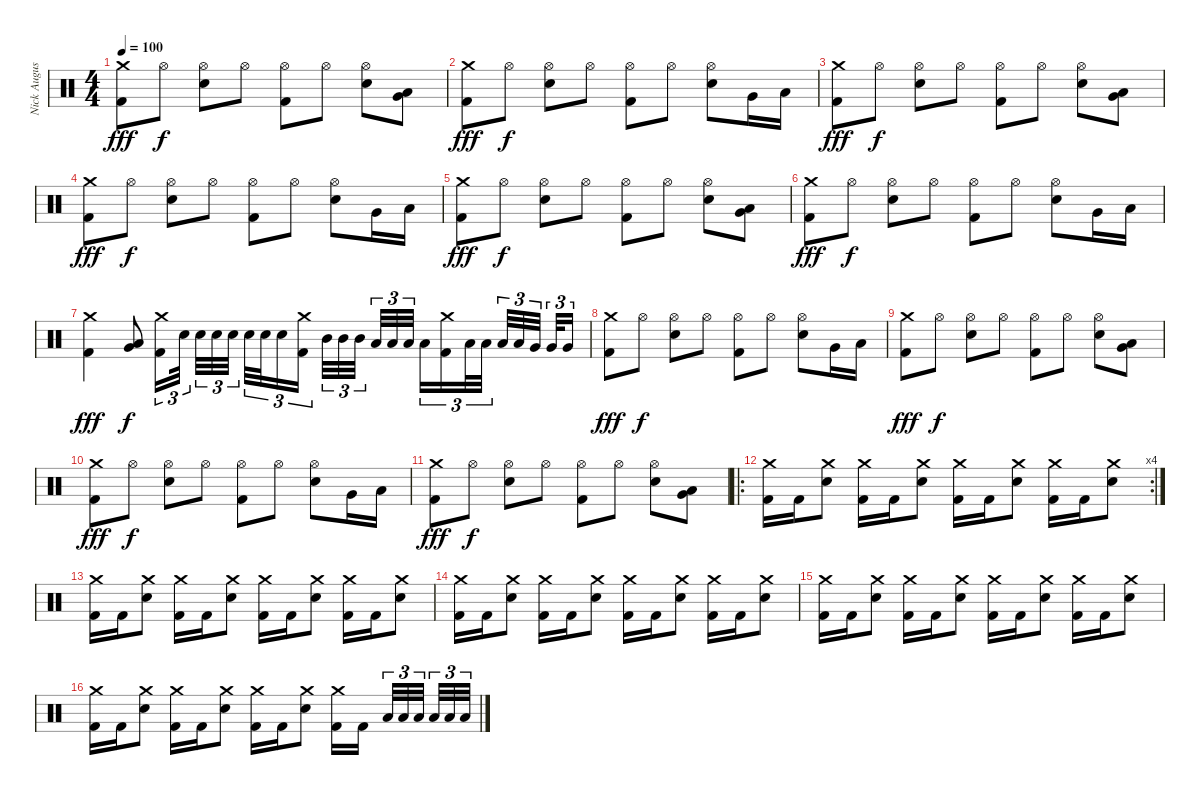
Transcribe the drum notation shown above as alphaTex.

\track ("Nick Augusto" "Nick Augus") {instrument percussion}
\staff {score}
\articulation defaults
\ts (4 4)
\tempo 100
\clef neutral
\ks c
("Crash medium (hit)" "Kick (hit) 2").8{dy fff} "Hi-Hat (open)".8{dy f} ("Electric Snare (hit)" "Hi-Hat (open)").8 "Hi-Hat (open)".8 ("Kick (hit) 2" "Hi-Hat (open)").8 "Hi-Hat (open)".8 ("Electric Snare (hit)" "Hi-Hat (open)").8 ("Low Floor Tom (hit)" "Very Low Tom (hit)").8 |
("Crash medium (hit)" "Kick (hit) 2").8{dy fff} "Hi-Hat (open)".8{dy f} ("Electric Snare (hit)" "Hi-Hat (open)").8 "Hi-Hat (open)".8 ("Kick (hit) 2" "Hi-Hat (open)").8 "Hi-Hat (open)".8 ("Electric Snare (hit)" "Hi-Hat (open)").8 "Very Low Tom (hit)".16 "Low Tom (hit)".16 |
("Crash medium (hit)" "Kick (hit) 2").8{dy fff} "Hi-Hat (open)".8{dy f} ("Electric Snare (hit)" "Hi-Hat (open)").8 "Hi-Hat (open)".8 ("Kick (hit) 2" "Hi-Hat (open)").8 "Hi-Hat (open)".8 ("Electric Snare (hit)" "Hi-Hat (open)").8 ("Low Floor Tom (hit)" "Very Low Tom (hit)").8 |
("Crash medium (hit)" "Kick (hit) 2").8{dy fff} "Hi-Hat (open)".8{dy f} ("Electric Snare (hit)" "Hi-Hat (open)").8 "Hi-Hat (open)".8 ("Kick (hit) 2" "Hi-Hat (open)").8 "Hi-Hat (open)".8 ("Electric Snare (hit)" "Hi-Hat (open)").8 "Very Low Tom (hit)".16 "Low Tom (hit)".16 |
("Crash medium (hit)" "Kick (hit) 2").8{dy fff} "Hi-Hat (open)".8{dy f} ("Electric Snare (hit)" "Hi-Hat (open)").8 "Hi-Hat (open)".8 ("Kick (hit) 2" "Hi-Hat (open)").8 "Hi-Hat (open)".8 ("Electric Snare (hit)" "Hi-Hat (open)").8 ("Low Floor Tom (hit)" "Very Low Tom (hit)").8 |
("Crash medium (hit)" "Kick (hit) 2").8{dy fff} "Hi-Hat (open)".8{dy f} ("Electric Snare (hit)" "Hi-Hat (open)").8 "Hi-Hat (open)".8 ("Kick (hit) 2" "Hi-Hat (open)").8 "Hi-Hat (open)".8 ("Electric Snare (hit)" "Hi-Hat (open)").8 "Very Low Tom (hit)".16 "Low Tom (hit)".16 |
("Crash medium (hit)" "Kick (hit) 2").4{dy fff} ("Very Low Tom (hit)" "Low Floor Tom (hit)").8{dy f} ("Kick (hit) 2" "Crash medium (hit)").16{tu (3 2)} "Electric Snare (hit)".32{tu (3 2) beam splitsecondary} "Electric Snare (hit)".32{tu (3 2)} "Electric Snare (hit)".32{tu (3 2)} "Electric Snare (hit)".32{tu (3 2)} "Electric Snare (hit)".32{tu (3 2)} "Electric Snare (hit)".32{tu (3 2)} "Electric Snare (hit)".16{tu (3 2)} ("Crash medium (hit)" "Kick (hit) 2").16{tu (3 2) beam splitsecondary} "Mid Tom (hit)".32{tu (3 2)} "Mid Tom (hit)".32{tu (3 2)} "Mid Tom (hit)".32{tu (3 2) beam splitsecondary} "Low Tom (hit)".32{tu (3 2)} "Low Tom (hit)".32{tu (3 2)} "Low Tom (hit)".32{tu (3 2)} "Low Tom (hit)".16{tu (3 2)} ("Crash medium (hit)" "Kick (hit) 2").16{tu (3 2)} "Low Tom (hit)".32{tu (3 2)} "Low Tom (hit)".32{tu (3 2) beam splitsecondary} "Low Tom (hit)".32{tu (3 2)} "Low Tom (hit)".32{tu (3 2)} "Very Low Tom (hit)".32{tu (3 2) beam splitsecondary} "Very Low Tom (hit)".32{tu (3 2)} "Very Low Tom (hit)".16{tu (3 2)} |
("Crash medium (hit)" "Kick (hit) 2").8{dy fff} "Hi-Hat (open)".8{dy f} ("Electric Snare (hit)" "Hi-Hat (open)").8 "Hi-Hat (open)".8 ("Kick (hit) 2" "Hi-Hat (open)").8 "Hi-Hat (open)".8 ("Electric Snare (hit)" "Hi-Hat (open)").8 "Very Low Tom (hit)".16 "Low Tom (hit)".16 |
("Crash medium (hit)" "Kick (hit) 2").8{dy fff} "Hi-Hat (open)".8{dy f} ("Electric Snare (hit)" "Hi-Hat (open)").8 "Hi-Hat (open)".8 ("Kick (hit) 2" "Hi-Hat (open)").8 "Hi-Hat (open)".8 ("Electric Snare (hit)" "Hi-Hat (open)").8 ("Low Floor Tom (hit)" "Very Low Tom (hit)").8 |
("Crash medium (hit)" "Kick (hit) 2").8{dy fff} "Hi-Hat (open)".8{dy f} ("Electric Snare (hit)" "Hi-Hat (open)").8 "Hi-Hat (open)".8 ("Kick (hit) 2" "Hi-Hat (open)").8 "Hi-Hat (open)".8 ("Electric Snare (hit)" "Hi-Hat (open)").8 "Very Low Tom (hit)".16 "Low Tom (hit)".16 |
("Crash medium (hit)" "Kick (hit) 2").8{dy fff} "Hi-Hat (open)".8{dy f} ("Electric Snare (hit)" "Hi-Hat (open)").8 "Hi-Hat (open)".8 ("Kick (hit) 2" "Hi-Hat (open)").8 "Hi-Hat (open)".8 ("Electric Snare (hit)" "Hi-Hat (open)").8 ("Low Floor Tom (hit)" "Very Low Tom (hit)").8 |
\ro
\rc 4
("Crash medium (hit)" "Kick (hit) 2").16 "Kick (hit) 2".16 ("Crash medium (hit)" "Electric Snare (hit)").8 ("Crash medium (hit)" "Kick (hit) 2").16 "Kick (hit) 2".16 ("Crash medium (hit)" "Electric Snare (hit)").8 ("Crash medium (hit)" "Kick (hit) 2").16 "Kick (hit) 2".16 ("Crash medium (hit)" "Electric Snare (hit)").8 ("Crash medium (hit)" "Kick (hit) 2").16 "Kick (hit) 2".16 ("Crash medium (hit)" "Electric Snare (hit)").8 |
("Crash medium (hit)" "Kick (hit) 2").16 "Kick (hit) 2".16 ("Crash medium (hit)" "Electric Snare (hit)").8 ("Crash medium (hit)" "Kick (hit) 2").16 "Kick (hit) 2".16 ("Crash medium (hit)" "Electric Snare (hit)").8 ("Crash medium (hit)" "Kick (hit) 2").16 "Kick (hit) 2".16 ("Crash medium (hit)" "Electric Snare (hit)").8 ("Crash medium (hit)" "Kick (hit) 2").16 "Kick (hit) 2".16 ("Crash medium (hit)" "Electric Snare (hit)").8 |
("Crash medium (hit)" "Kick (hit) 2").16 "Kick (hit) 2".16 ("Crash medium (hit)" "Electric Snare (hit)").8 ("Crash medium (hit)" "Kick (hit) 2").16 "Kick (hit) 2".16 ("Crash medium (hit)" "Electric Snare (hit)").8 ("Crash medium (hit)" "Kick (hit) 2").16 "Kick (hit) 2".16 ("Crash medium (hit)" "Electric Snare (hit)").8 ("Crash medium (hit)" "Kick (hit) 2").16 "Kick (hit) 2".16 ("Crash medium (hit)" "Electric Snare (hit)").8 |
("Crash medium (hit)" "Kick (hit) 2").16 "Kick (hit) 2".16 ("Crash medium (hit)" "Electric Snare (hit)").8 ("Crash medium (hit)" "Kick (hit) 2").16 "Kick (hit) 2".16 ("Crash medium (hit)" "Electric Snare (hit)").8 ("Crash medium (hit)" "Kick (hit) 2").16 "Kick (hit) 2".16 ("Crash medium (hit)" "Electric Snare (hit)").8 ("Crash medium (hit)" "Kick (hit) 2").16 "Kick (hit) 2".16 ("Crash medium (hit)" "Electric Snare (hit)").8 |
("Crash medium (hit)" "Kick (hit) 2").16 "Kick (hit) 2".16 ("Crash medium (hit)" "Electric Snare (hit)").8 ("Crash medium (hit)" "Kick (hit) 2").16 "Kick (hit) 2".16 ("Crash medium (hit)" "Electric Snare (hit)").8 ("Crash medium (hit)" "Kick (hit) 2").16 "Kick (hit) 2".16 ("Crash medium (hit)" "Electric Snare (hit)").8 ("Crash medium (hit)" "Kick (hit) 2").16 "Kick (hit) 2".16{beam splitsecondary} "Low Tom (hit)".32{tu (3 2)} "Low Tom (hit)".32{tu (3 2)} "Low Tom (hit)".32{tu (3 2) beam splitsecondary} "Low Tom (hit)".32{tu (3 2)} "Low Tom (hit)".32{tu (3 2)} "Low Tom (hit)".32{tu (3 2)}
